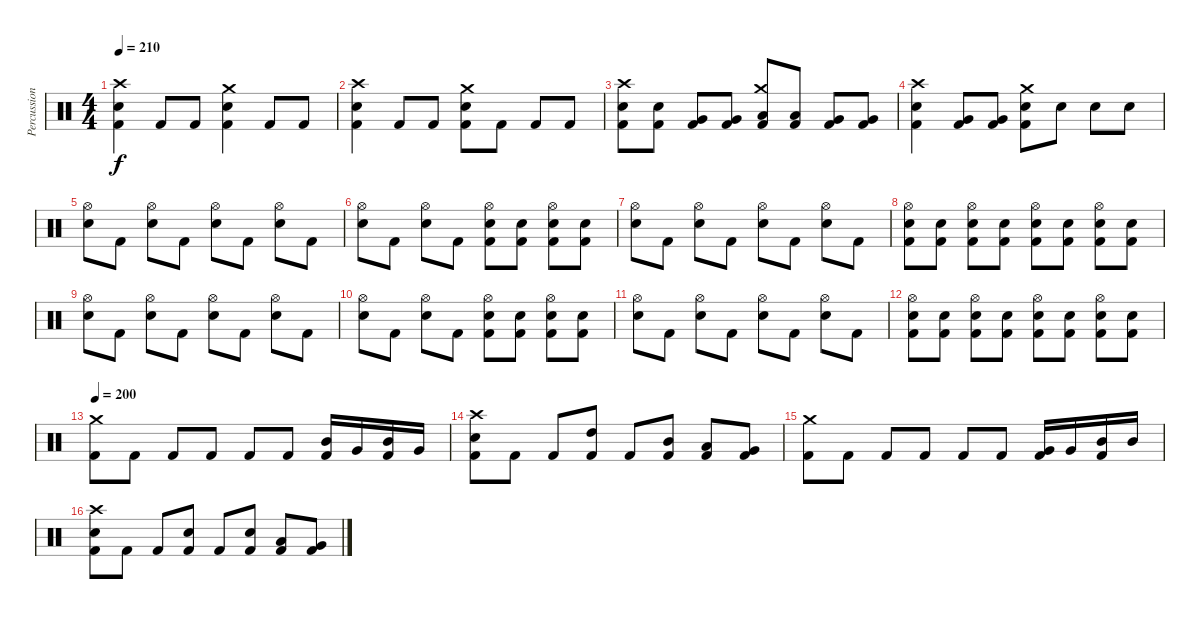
\track ("Percussion" "Percussion") {instrument percussion}
\staff {score}
\articulation defaults
\ts (4 4)
\tempo 210
\clef neutral
\ks c
("Crash high (hit)" "Electric Snare (hit)" "Kick (hit) 2").4{dy f} "Kick (hit) 2".8 "Kick (hit) 2".8 ("Crash medium (hit)" "Electric Snare (hit)" "Kick (hit) 2").4 "Kick (hit) 2".8 "Kick (hit) 2".8 |
("Crash high (hit)" "Electric Snare (hit)" "Kick (hit) 2").4 "Kick (hit) 2".8 "Kick (hit) 2".8 ("Crash medium (hit)" "Electric Snare (hit)" "Kick (hit) 2").8 "Kick (hit) 2".8 "Kick (hit) 2".8 "Kick (hit) 2".8 |
("Crash high (hit)" "Electric Snare (hit)" "Kick (hit) 2").8 ("Electric Snare (hit)" "Kick (hit) 2").8 ("Very Low Tom (hit)" "Kick (hit) 2").8 ("Very Low Tom (hit)" "Kick (hit) 2").8 ("Crash medium (hit)" "Low Tom (hit)" "Kick (hit) 2").8 ("Low Tom (hit)" "Kick (hit) 2").8 ("Very Low Tom (hit)" "Kick (hit) 2").8 ("Very Low Tom (hit)" "Kick (hit) 2").8 |
("Crash high (hit)" "Electric Snare (hit)" "Kick (hit) 2").4 ("Very Low Tom (hit)" "Kick (hit) 2").8 ("Very Low Tom (hit)" "Kick (hit) 2").8 ("Crash medium (hit)" "Electric Snare (hit)" "Kick (hit) 2").8 "Electric Snare (hit)".8 "Electric Snare (hit)".8 "Electric Snare (hit)".8 |
("Hi-Hat (open)" "Electric Snare (hit)").8 "Kick (hit) 2".8 ("Hi-Hat (open)" "Electric Snare (hit)").8 "Kick (hit) 2".8 ("Hi-Hat (open)" "Electric Snare (hit)").8 "Kick (hit) 2".8 ("Hi-Hat (open)" "Electric Snare (hit)").8 "Kick (hit) 2".8 |
("Hi-Hat (open)" "Electric Snare (hit)").8 "Kick (hit) 2".8 ("Hi-Hat (open)" "Electric Snare (hit)").8 "Kick (hit) 2".8 ("Hi-Hat (open)" "Electric Snare (hit)" "Kick (hit) 2").8 ("Electric Snare (hit)" "Kick (hit) 2").8 ("Hi-Hat (open)" "Electric Snare (hit)" "Kick (hit) 2").8 ("Electric Snare (hit)" "Kick (hit) 2").8 |
("Hi-Hat (open)" "Electric Snare (hit)").8 "Kick (hit) 2".8 ("Hi-Hat (open)" "Electric Snare (hit)").8 "Kick (hit) 2".8 ("Hi-Hat (open)" "Electric Snare (hit)").8 "Kick (hit) 2".8 ("Hi-Hat (open)" "Electric Snare (hit)").8 "Kick (hit) 2".8 |
("Hi-Hat (open)" "Electric Snare (hit)" "Kick (hit) 2").8 ("Electric Snare (hit)" "Kick (hit) 2").8 ("Hi-Hat (open)" "Electric Snare (hit)" "Kick (hit) 2").8 ("Electric Snare (hit)" "Kick (hit) 2").8 ("Hi-Hat (open)" "Electric Snare (hit)" "Kick (hit) 2").8 ("Electric Snare (hit)" "Kick (hit) 2").8 ("Hi-Hat (open)" "Electric Snare (hit)" "Kick (hit) 2").8 ("Electric Snare (hit)" "Kick (hit) 2").8 |
("Hi-Hat (open)" "Electric Snare (hit)").8 "Kick (hit) 2".8 ("Hi-Hat (open)" "Electric Snare (hit)").8 "Kick (hit) 2".8 ("Hi-Hat (open)" "Electric Snare (hit)").8 "Kick (hit) 2".8 ("Hi-Hat (open)" "Electric Snare (hit)").8 "Kick (hit) 2".8 |
("Hi-Hat (open)" "Electric Snare (hit)").8 "Kick (hit) 2".8 ("Hi-Hat (open)" "Electric Snare (hit)").8 "Kick (hit) 2".8 ("Hi-Hat (open)" "Electric Snare (hit)" "Kick (hit) 2").8 ("Electric Snare (hit)" "Kick (hit) 2").8 ("Hi-Hat (open)" "Electric Snare (hit)" "Kick (hit) 2").8 ("Electric Snare (hit)" "Kick (hit) 2").8 |
("Hi-Hat (open)" "Electric Snare (hit)").8 "Kick (hit) 2".8 ("Hi-Hat (open)" "Electric Snare (hit)").8 "Kick (hit) 2".8 ("Hi-Hat (open)" "Electric Snare (hit)").8 "Kick (hit) 2".8 ("Hi-Hat (open)" "Electric Snare (hit)").8 "Kick (hit) 2".8 |
("Hi-Hat (open)" "Electric Snare (hit)" "Kick (hit) 2").8 ("Electric Snare (hit)" "Kick (hit) 2").8 ("Hi-Hat (open)" "Electric Snare (hit)" "Kick (hit) 2").8 ("Electric Snare (hit)" "Kick (hit) 2").8 ("Hi-Hat (open)" "Electric Snare (hit)" "Kick (hit) 2").8 ("Electric Snare (hit)" "Kick (hit) 2").8 ("Hi-Hat (open)" "Electric Snare (hit)" "Kick (hit) 2").8 ("Electric Snare (hit)" "Kick (hit) 2").8 |
\tempo 200
("Crash medium (hit)" "Kick (hit) 2").8 "Kick (hit) 2".8 "Kick (hit) 2".8 "Kick (hit) 2".8 "Kick (hit) 2".8 "Kick (hit) 2".8 ("Mid Tom (hit)" "Kick (hit) 2").16 "Very Low Tom (hit)".16 ("Mid Tom (hit)" "Kick (hit) 2").16 "Very Low Tom (hit)".16 |
("Crash high (hit)" "Electric Snare (hit)" "Kick (hit) 2").8 "Kick (hit) 2".8 "Kick (hit) 2".8 ("High Tom (hit)" "Kick (hit) 2").8 "Kick (hit) 2".8 ("Mid Tom (hit)" "Kick (hit) 2").8 ("Low Tom (hit)" "Kick (hit) 2").8 ("Very Low Tom (hit)" "Kick (hit) 2").8 |
("Crash medium (hit)" "Kick (hit) 2").8 "Kick (hit) 2".8 "Kick (hit) 2".8 "Kick (hit) 2".8 "Kick (hit) 2".8 "Kick (hit) 2".8 ("Very Low Tom (hit)" "Kick (hit) 2").16 "Very Low Tom (hit)".16 ("Mid Tom (hit)" "Kick (hit) 2").16 "Mid Tom (hit)".16 |
("Crash high (hit)" "Electric Snare (hit)" "Kick (hit) 2").8 "Kick (hit) 2".8 "Kick (hit) 2".8 ("Electric Snare (hit)" "Kick (hit) 2").8 "Kick (hit) 2".8 ("Electric Snare (hit)" "Kick (hit) 2").8 ("Low Tom (hit)" "Kick (hit) 2").8 ("Very Low Tom (hit)" "Kick (hit) 2").8
